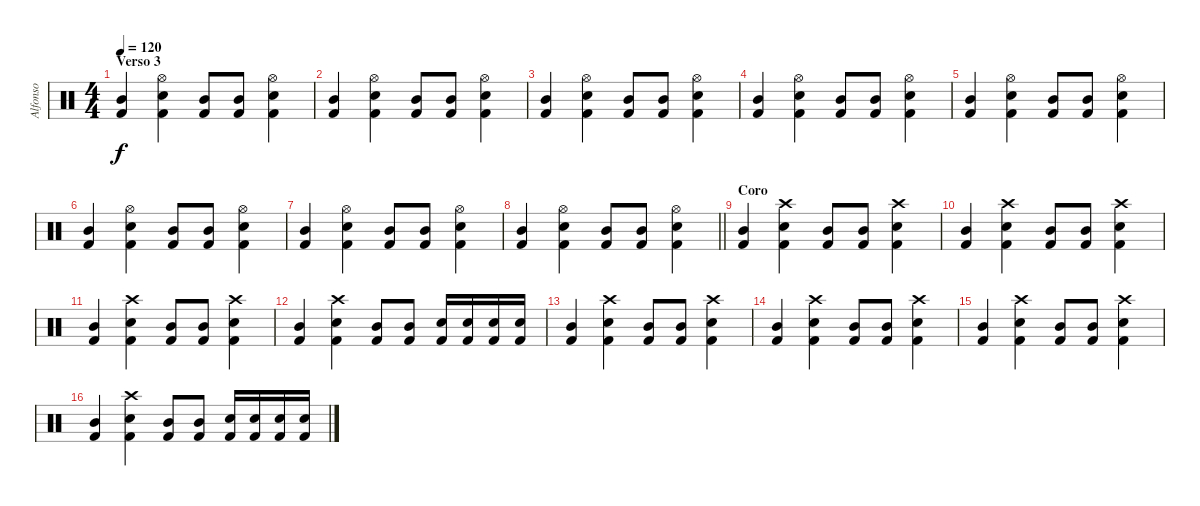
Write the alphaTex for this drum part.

\track ("Alfonso" "Alfonso") {instrument percussion}
\staff {score}
\articulation defaults
\ts (4 4)
\section ("" "Verso 3")
\tempo 120
\clef neutral
\ks c
("Kick (hit) 2" "Mid Tom (hit)").4{dy f} ("Kick (hit) 2" "Snare (hit) 2" "Hi-Hat (open)").4 ("Kick (hit) 2" "Mid Tom (hit)").8 ("Kick (hit) 2" "Mid Tom (hit)").8 ("Kick (hit) 2" "Snare (hit) 2" "Hi-Hat (open)").4 |
("Kick (hit) 2" "Mid Tom (hit)").4 ("Kick (hit) 2" "Snare (hit) 2" "Hi-Hat (open)").4 ("Kick (hit) 2" "Mid Tom (hit)").8 ("Kick (hit) 2" "Mid Tom (hit)").8 ("Kick (hit) 2" "Snare (hit) 2" "Hi-Hat (open)").4 |
("Kick (hit) 2" "Mid Tom (hit)").4 ("Kick (hit) 2" "Snare (hit) 2" "Hi-Hat (open)").4 ("Kick (hit) 2" "Mid Tom (hit)").8 ("Kick (hit) 2" "Mid Tom (hit)").8 ("Kick (hit) 2" "Snare (hit) 2" "Hi-Hat (open)").4 |
("Kick (hit) 2" "Mid Tom (hit)").4 ("Kick (hit) 2" "Snare (hit) 2" "Hi-Hat (open)").4 ("Kick (hit) 2" "Mid Tom (hit)").8 ("Kick (hit) 2" "Mid Tom (hit)").8 ("Kick (hit) 2" "Snare (hit) 2" "Hi-Hat (open)").4 |
("Kick (hit) 2" "Mid Tom (hit)").4 ("Kick (hit) 2" "Snare (hit) 2" "Hi-Hat (open)").4 ("Kick (hit) 2" "Mid Tom (hit)").8 ("Kick (hit) 2" "Mid Tom (hit)").8 ("Kick (hit) 2" "Snare (hit) 2" "Hi-Hat (open)").4 |
("Kick (hit) 2" "Mid Tom (hit)").4 ("Kick (hit) 2" "Snare (hit) 2" "Hi-Hat (open)").4 ("Kick (hit) 2" "Mid Tom (hit)").8 ("Kick (hit) 2" "Mid Tom (hit)").8 ("Kick (hit) 2" "Snare (hit) 2" "Hi-Hat (open)").4 |
("Kick (hit) 2" "Mid Tom (hit)").4 ("Kick (hit) 2" "Snare (hit) 2" "Hi-Hat (open)").4 ("Kick (hit) 2" "Mid Tom (hit)").8 ("Kick (hit) 2" "Mid Tom (hit)").8 ("Kick (hit) 2" "Snare (hit) 2" "Hi-Hat (open)").4 |
\barLineRight lightlight
("Kick (hit) 2" "Mid Tom (hit)").4 ("Kick (hit) 2" "Snare (hit) 2" "Hi-Hat (open)").4 ("Kick (hit) 2" "Mid Tom (hit)").8 ("Kick (hit) 2" "Mid Tom (hit)").8 ("Kick (hit) 2" "Snare (hit) 2" "Hi-Hat (open)").4 |
\section ("" "Coro")
("Kick (hit) 2" "Mid Tom (hit)").4 ("Kick (hit) 2" "Snare (hit) 2" "Crash high (hit)").4 ("Kick (hit) 2" "Mid Tom (hit)").8 ("Kick (hit) 2" "Mid Tom (hit)").8 ("Kick (hit) 2" "Snare (hit) 2" "Crash high (hit)").4 |
("Kick (hit) 2" "Mid Tom (hit)").4 ("Kick (hit) 2" "Snare (hit) 2" "Crash high (hit)").4 ("Kick (hit) 2" "Mid Tom (hit)").8 ("Kick (hit) 2" "Mid Tom (hit)").8 ("Kick (hit) 2" "Snare (hit) 2" "Crash high (hit)").4 |
("Kick (hit) 2" "Mid Tom (hit)").4 ("Kick (hit) 2" "Snare (hit) 2" "Crash high (hit)").4 ("Kick (hit) 2" "Mid Tom (hit)").8 ("Kick (hit) 2" "Mid Tom (hit)").8 ("Kick (hit) 2" "Snare (hit) 2" "Crash high (hit)").4 |
("Kick (hit) 2" "Mid Tom (hit)").4 ("Kick (hit) 2" "Snare (hit) 2" "Crash high (hit)").4 ("Kick (hit) 2" "Mid Tom (hit)").8 ("Kick (hit) 2" "Mid Tom (hit)").8 ("Kick (hit) 2" "Snare (hit) 2").16 ("Kick (hit) 2" "Snare (hit) 2").16 ("Kick (hit) 2" "Snare (hit) 2").16 ("Kick (hit) 2" "Snare (hit) 2").16 |
("Kick (hit) 2" "Mid Tom (hit)").4 ("Kick (hit) 2" "Snare (hit) 2" "Crash high (hit)").4 ("Kick (hit) 2" "Mid Tom (hit)").8 ("Kick (hit) 2" "Mid Tom (hit)").8 ("Kick (hit) 2" "Snare (hit) 2" "Crash high (hit)").4 |
("Kick (hit) 2" "Mid Tom (hit)").4 ("Kick (hit) 2" "Snare (hit) 2" "Crash high (hit)").4 ("Kick (hit) 2" "Mid Tom (hit)").8 ("Kick (hit) 2" "Mid Tom (hit)").8 ("Kick (hit) 2" "Snare (hit) 2" "Crash high (hit)").4 |
("Kick (hit) 2" "Mid Tom (hit)").4 ("Kick (hit) 2" "Snare (hit) 2" "Crash high (hit)").4 ("Kick (hit) 2" "Mid Tom (hit)").8 ("Kick (hit) 2" "Mid Tom (hit)").8 ("Kick (hit) 2" "Snare (hit) 2" "Crash high (hit)").4 |
("Kick (hit) 2" "Mid Tom (hit)").4 ("Kick (hit) 2" "Snare (hit) 2" "Crash high (hit)").4 ("Kick (hit) 2" "Mid Tom (hit)").8 ("Kick (hit) 2" "Mid Tom (hit)").8 ("Kick (hit) 2" "Snare (hit) 2").16 ("Kick (hit) 2" "Snare (hit) 2").16 ("Kick (hit) 2" "Snare (hit) 2").16 ("Kick (hit) 2" "Snare (hit) 2").16
